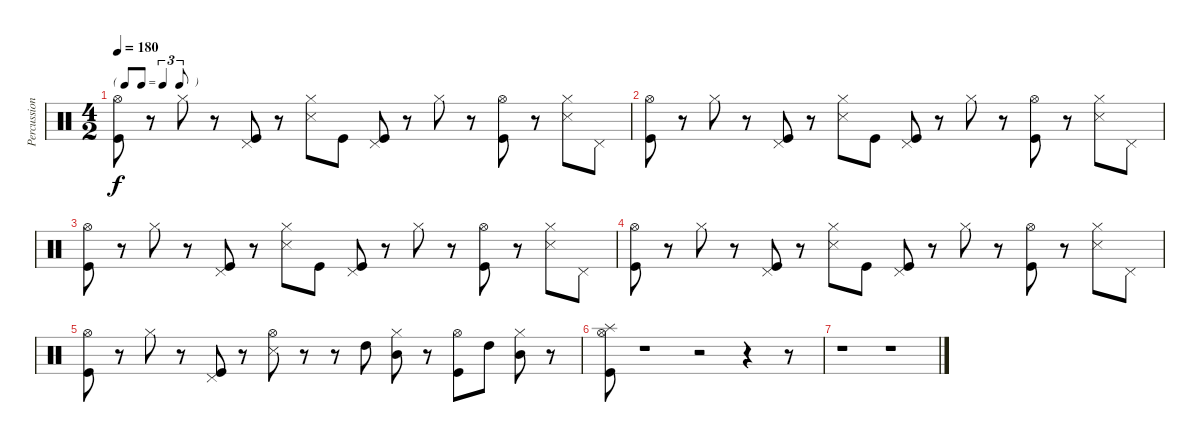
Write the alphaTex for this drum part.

\track ("Percussion" "Percussion") {instrument percussion}
\staff {score}
\articulation defaults
\ts (4 2)
\tf triplet8th
\tempo 180
\clef neutral
\ks c
("Hi-Hat (open)" "Kick (hit)").8{dy f} r.8 "Hi-Hat (closed)".8 r.8 ("Pedal Hi-Hat (hit)" "Kick (hit)").8 r.8 ("Hi-Hat (closed)" "Snare (side stick) 3").8 "Kick (hit)".8 ("Pedal Hi-Hat (hit)" "Kick (hit)").8 r.8 "Hi-Hat (closed)".8 r.8 ("Hi-Hat (open)" "Kick (hit)").8 r.8 ("Hi-Hat (closed)" "Snare (side stick) 3").8 "Pedal Hi-Hat (hit)".8 |
("Hi-Hat (open)" "Kick (hit)").8 r.8 "Hi-Hat (closed)".8 r.8 ("Pedal Hi-Hat (hit)" "Kick (hit)").8 r.8 ("Hi-Hat (closed)" "Snare (side stick) 3").8 "Kick (hit)".8 ("Pedal Hi-Hat (hit)" "Kick (hit)").8 r.8 "Hi-Hat (closed)".8 r.8 ("Hi-Hat (open)" "Kick (hit)").8 r.8 ("Hi-Hat (closed)" "Snare (side stick) 3").8 "Pedal Hi-Hat (hit)".8 |
("Hi-Hat (open)" "Kick (hit)").8 r.8 "Hi-Hat (closed)".8 r.8 ("Pedal Hi-Hat (hit)" "Kick (hit)").8 r.8 ("Hi-Hat (closed)" "Snare (side stick) 3").8 "Kick (hit)".8 ("Pedal Hi-Hat (hit)" "Kick (hit)").8 r.8 "Hi-Hat (closed)".8 r.8 ("Hi-Hat (open)" "Kick (hit)").8 r.8 ("Hi-Hat (closed)" "Snare (side stick) 3").8 "Pedal Hi-Hat (hit)".8 |
("Hi-Hat (open)" "Kick (hit)").8 r.8 "Hi-Hat (closed)".8 r.8 ("Pedal Hi-Hat (hit)" "Kick (hit)").8 r.8 ("Hi-Hat (closed)" "Snare (side stick) 3").8 "Kick (hit)".8 ("Pedal Hi-Hat (hit)" "Kick (hit)").8 r.8 "Hi-Hat (closed)".8 r.8 ("Hi-Hat (open)" "Kick (hit)").8 r.8 ("Hi-Hat (closed)" "Snare (side stick) 3").8 "Pedal Hi-Hat (hit)".8 |
("Hi-Hat (open)" "Kick (hit)").8 r.8 "Hi-Hat (closed)".8 r.8 ("Pedal Hi-Hat (hit)" "Kick (hit)").8 r.8 ("Hi-Hat (open)" "Snare (side stick) 3").8 r.8 r.8 "High Tom (hit)".8 ("Hi-Hat (closed)" "Mid Tom (hit)").8 r.8 ("Hi-Hat (open)" "Kick (hit)").8 "High Tom (hit)".8 ("Hi-Hat (closed)" "Mid Tom (hit)").8 r.8 |
("Splash (hit)" "Hi-Hat (open)" "Kick (hit)").8 r.1 r.2 r.4 r.8 |
r.1 r.1
